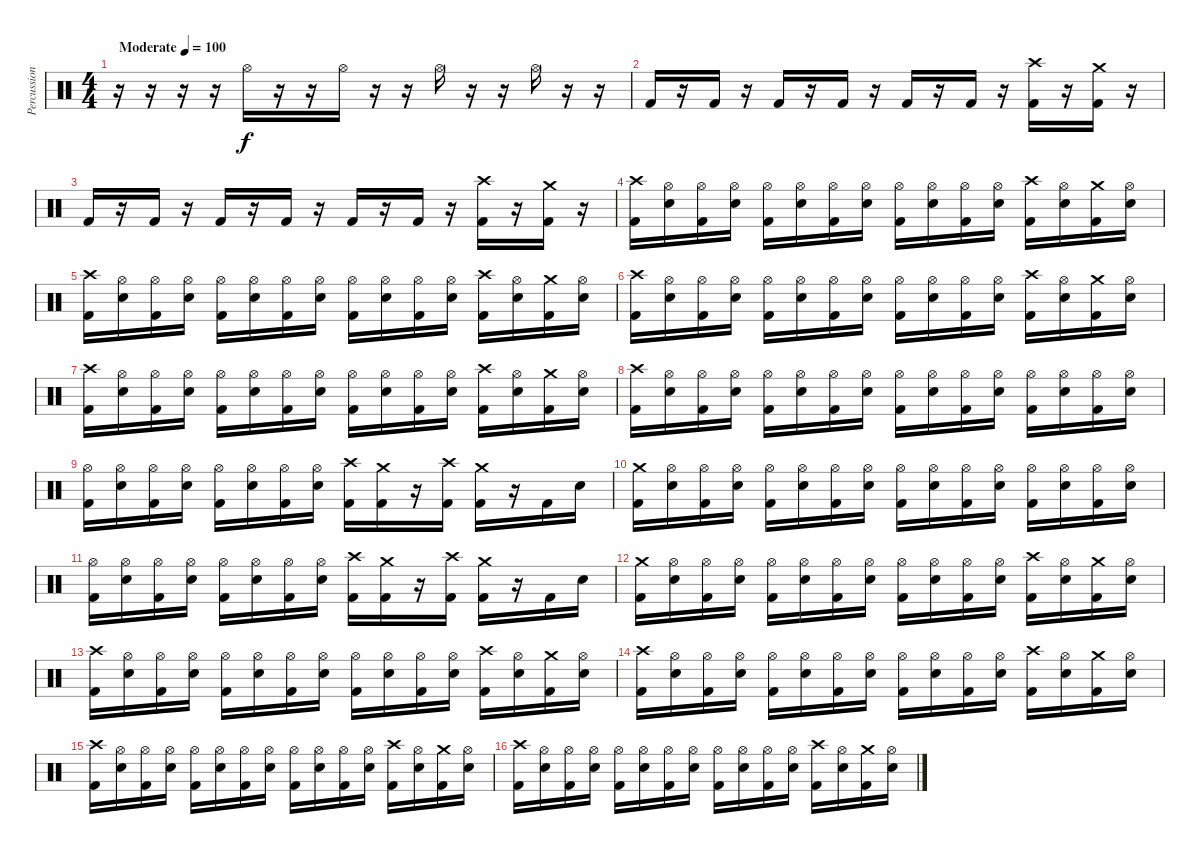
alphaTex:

\track ("Percussion" "Percussion") {instrument percussion}
\staff {score}
\articulation defaults
\ts (4 4)
\tempo (100 "Moderate")
\clef neutral
\ks c
r.16{dy f} r.16 r.16 r.16 "Hi-Hat (open)".16 r.16 r.16 "Hi-Hat (open)".16 r.16 r.16 "Hi-Hat (open)".16 r.16 r.16 "Hi-Hat (open)".16 r.16 r.16 |
"Kick (hit) 2".16 r.16 "Kick (hit) 2".16 r.16 "Kick (hit) 2".16 r.16 "Kick (hit) 2".16 r.16 "Kick (hit) 2".16 r.16 "Kick (hit) 2".16 r.16 ("Crash high (hit)" "Kick (hit) 2").16 r.16 ("Crash medium (hit)" "Kick (hit) 2").16 r.16 |
"Kick (hit) 2".16 r.16 "Kick (hit) 2".16 r.16 "Kick (hit) 2".16 r.16 "Kick (hit) 2".16 r.16 "Kick (hit) 2".16 r.16 "Kick (hit) 2".16 r.16 ("Crash high (hit)" "Kick (hit) 2").16 r.16 ("Crash medium (hit)" "Kick (hit) 2").16 r.16 |
("Crash high (hit)" "Kick (hit) 2").16 ("Hi-Hat (open)" "Snare (hit) 2").16 ("Hi-Hat (open)" "Kick (hit) 2").16 ("Hi-Hat (open)" "Snare (hit) 2").16 ("Hi-Hat (open)" "Kick (hit) 2").16 ("Hi-Hat (open)" "Snare (hit) 2").16 ("Hi-Hat (open)" "Kick (hit) 2").16 ("Hi-Hat (open)" "Snare (hit) 2").16 ("Hi-Hat (open)" "Kick (hit) 2").16 ("Hi-Hat (open)" "Snare (hit) 2").16 ("Hi-Hat (open)" "Kick (hit) 2").16 ("Hi-Hat (open)" "Snare (hit) 2").16 ("Crash high (hit)" "Kick (hit) 2").16 ("Hi-Hat (open)" "Snare (hit) 2").16 ("Crash medium (hit)" "Kick (hit) 2").16 ("Hi-Hat (open)" "Snare (hit) 2").16 |
("Crash high (hit)" "Kick (hit) 2").16 ("Hi-Hat (open)" "Snare (hit) 2").16 ("Hi-Hat (open)" "Kick (hit) 2").16 ("Hi-Hat (open)" "Snare (hit) 2").16 ("Hi-Hat (open)" "Kick (hit) 2").16 ("Hi-Hat (open)" "Snare (hit) 2").16 ("Hi-Hat (open)" "Kick (hit) 2").16 ("Hi-Hat (open)" "Snare (hit) 2").16 ("Hi-Hat (open)" "Kick (hit) 2").16 ("Hi-Hat (open)" "Snare (hit) 2").16 ("Hi-Hat (open)" "Kick (hit) 2").16 ("Hi-Hat (open)" "Snare (hit) 2").16 ("Crash high (hit)" "Kick (hit) 2").16 ("Hi-Hat (open)" "Snare (hit) 2").16 ("Crash medium (hit)" "Kick (hit) 2").16 ("Hi-Hat (open)" "Snare (hit) 2").16 |
("Crash high (hit)" "Kick (hit) 2").16 ("Hi-Hat (open)" "Snare (hit) 2").16 ("Hi-Hat (open)" "Kick (hit) 2").16 ("Hi-Hat (open)" "Snare (hit) 2").16 ("Hi-Hat (open)" "Kick (hit) 2").16 ("Hi-Hat (open)" "Snare (hit) 2").16 ("Hi-Hat (open)" "Kick (hit) 2").16 ("Hi-Hat (open)" "Snare (hit) 2").16 ("Hi-Hat (open)" "Kick (hit) 2").16 ("Hi-Hat (open)" "Snare (hit) 2").16 ("Hi-Hat (open)" "Kick (hit) 2").16 ("Hi-Hat (open)" "Snare (hit) 2").16 ("Crash high (hit)" "Kick (hit) 2").16 ("Hi-Hat (open)" "Snare (hit) 2").16 ("Crash medium (hit)" "Kick (hit) 2").16 ("Hi-Hat (open)" "Snare (hit) 2").16 |
("Crash high (hit)" "Kick (hit) 2").16 ("Hi-Hat (open)" "Snare (hit) 2").16 ("Hi-Hat (open)" "Kick (hit) 2").16 ("Hi-Hat (open)" "Snare (hit) 2").16 ("Hi-Hat (open)" "Kick (hit) 2").16 ("Hi-Hat (open)" "Snare (hit) 2").16 ("Hi-Hat (open)" "Kick (hit) 2").16 ("Hi-Hat (open)" "Snare (hit) 2").16 ("Hi-Hat (open)" "Kick (hit) 2").16 ("Hi-Hat (open)" "Snare (hit) 2").16 ("Hi-Hat (open)" "Kick (hit) 2").16 ("Hi-Hat (open)" "Snare (hit) 2").16 ("Crash high (hit)" "Kick (hit) 2").16 ("Hi-Hat (open)" "Snare (hit) 2").16 ("Crash medium (hit)" "Kick (hit) 2").16 ("Hi-Hat (open)" "Snare (hit) 2").16 |
("Crash high (hit)" "Kick (hit) 2").16 ("Hi-Hat (open)" "Snare (hit) 2").16 ("Hi-Hat (open)" "Kick (hit) 2").16 ("Hi-Hat (open)" "Snare (hit) 2").16 ("Hi-Hat (open)" "Kick (hit) 2").16 ("Hi-Hat (open)" "Snare (hit) 2").16 ("Hi-Hat (open)" "Kick (hit) 2").16 ("Hi-Hat (open)" "Snare (hit) 2").16 ("Hi-Hat (open)" "Kick (hit) 2").16 ("Hi-Hat (open)" "Snare (hit) 2").16 ("Hi-Hat (open)" "Kick (hit) 2").16 ("Hi-Hat (open)" "Snare (hit) 2").16 ("Hi-Hat (open)" "Kick (hit) 2").16 ("Hi-Hat (open)" "Snare (hit) 2").16 ("Hi-Hat (open)" "Kick (hit) 2").16 ("Hi-Hat (open)" "Snare (hit) 2").16 |
("Hi-Hat (open)" "Kick (hit) 2").16 ("Hi-Hat (open)" "Snare (hit) 2").16 ("Hi-Hat (open)" "Kick (hit) 2").16 ("Hi-Hat (open)" "Snare (hit) 2").16 ("Hi-Hat (open)" "Kick (hit) 2").16 ("Hi-Hat (open)" "Snare (hit) 2").16 ("Hi-Hat (open)" "Kick (hit) 2").16 ("Hi-Hat (open)" "Snare (hit) 2").16 ("Crash high (hit)" "Kick (hit) 2").16 ("Crash medium (hit)" "Kick (hit) 2").16 r.16 ("Crash high (hit)" "Kick (hit) 2").16 ("Crash medium (hit)" "Kick (hit) 2").16 r.16 "Kick (hit) 2".16 "Snare (hit) 2".16 |
("Crash medium (hit)" "Kick (hit) 2").16 ("Hi-Hat (open)" "Snare (hit) 2").16 ("Hi-Hat (open)" "Kick (hit) 2").16 ("Hi-Hat (open)" "Snare (hit) 2").16 ("Hi-Hat (open)" "Kick (hit) 2").16 ("Hi-Hat (open)" "Snare (hit) 2").16 ("Hi-Hat (open)" "Kick (hit) 2").16 ("Hi-Hat (open)" "Snare (hit) 2").16 ("Hi-Hat (open)" "Kick (hit) 2").16 ("Hi-Hat (open)" "Snare (hit) 2").16 ("Hi-Hat (open)" "Kick (hit) 2").16 ("Hi-Hat (open)" "Snare (hit) 2").16 ("Hi-Hat (open)" "Kick (hit) 2").16 ("Hi-Hat (open)" "Snare (hit) 2").16 ("Hi-Hat (open)" "Kick (hit) 2").16 ("Hi-Hat (open)" "Snare (hit) 2").16 |
("Hi-Hat (open)" "Kick (hit) 2").16 ("Hi-Hat (open)" "Snare (hit) 2").16 ("Hi-Hat (open)" "Kick (hit) 2").16 ("Hi-Hat (open)" "Snare (hit) 2").16 ("Hi-Hat (open)" "Kick (hit) 2").16 ("Hi-Hat (open)" "Snare (hit) 2").16 ("Hi-Hat (open)" "Kick (hit) 2").16 ("Hi-Hat (open)" "Snare (hit) 2").16 ("Crash high (hit)" "Kick (hit) 2").16 ("Crash medium (hit)" "Kick (hit) 2").16 r.16 ("Crash high (hit)" "Kick (hit) 2").16 ("Crash medium (hit)" "Kick (hit) 2").16 r.16 "Kick (hit) 2".16 "Snare (hit) 2".16 |
("Crash medium (hit)" "Kick (hit) 2").16 ("Hi-Hat (open)" "Snare (hit) 2").16 ("Hi-Hat (open)" "Kick (hit) 2").16 ("Hi-Hat (open)" "Snare (hit) 2").16 ("Hi-Hat (open)" "Kick (hit) 2").16 ("Hi-Hat (open)" "Snare (hit) 2").16 ("Hi-Hat (open)" "Kick (hit) 2").16 ("Hi-Hat (open)" "Snare (hit) 2").16 ("Hi-Hat (open)" "Kick (hit) 2").16 ("Hi-Hat (open)" "Snare (hit) 2").16 ("Hi-Hat (open)" "Kick (hit) 2").16 ("Hi-Hat (open)" "Snare (hit) 2").16 ("Crash high (hit)" "Kick (hit) 2").16 ("Hi-Hat (open)" "Snare (hit) 2").16 ("Crash medium (hit)" "Kick (hit) 2").16 ("Hi-Hat (open)" "Snare (hit) 2").16 |
("Crash high (hit)" "Kick (hit) 2").16 ("Hi-Hat (open)" "Snare (hit) 2").16 ("Hi-Hat (open)" "Kick (hit) 2").16 ("Hi-Hat (open)" "Snare (hit) 2").16 ("Hi-Hat (open)" "Kick (hit) 2").16 ("Hi-Hat (open)" "Snare (hit) 2").16 ("Hi-Hat (open)" "Kick (hit) 2").16 ("Hi-Hat (open)" "Snare (hit) 2").16 ("Hi-Hat (open)" "Kick (hit) 2").16 ("Hi-Hat (open)" "Snare (hit) 2").16 ("Hi-Hat (open)" "Kick (hit) 2").16 ("Hi-Hat (open)" "Snare (hit) 2").16 ("Crash high (hit)" "Kick (hit) 2").16 ("Hi-Hat (open)" "Snare (hit) 2").16 ("Crash medium (hit)" "Kick (hit) 2").16 ("Hi-Hat (open)" "Snare (hit) 2").16 |
("Crash high (hit)" "Kick (hit) 2").16 ("Hi-Hat (open)" "Snare (hit) 2").16 ("Hi-Hat (open)" "Kick (hit) 2").16 ("Hi-Hat (open)" "Snare (hit) 2").16 ("Hi-Hat (open)" "Kick (hit) 2").16 ("Hi-Hat (open)" "Snare (hit) 2").16 ("Hi-Hat (open)" "Kick (hit) 2").16 ("Hi-Hat (open)" "Snare (hit) 2").16 ("Hi-Hat (open)" "Kick (hit) 2").16 ("Hi-Hat (open)" "Snare (hit) 2").16 ("Hi-Hat (open)" "Kick (hit) 2").16 ("Hi-Hat (open)" "Snare (hit) 2").16 ("Crash high (hit)" "Kick (hit) 2").16 ("Hi-Hat (open)" "Snare (hit) 2").16 ("Crash medium (hit)" "Kick (hit) 2").16 ("Hi-Hat (open)" "Snare (hit) 2").16 |
("Crash high (hit)" "Kick (hit) 2").16 ("Hi-Hat (open)" "Snare (hit) 2").16 ("Hi-Hat (open)" "Kick (hit) 2").16 ("Hi-Hat (open)" "Snare (hit) 2").16 ("Hi-Hat (open)" "Kick (hit) 2").16 ("Hi-Hat (open)" "Snare (hit) 2").16 ("Hi-Hat (open)" "Kick (hit) 2").16 ("Hi-Hat (open)" "Snare (hit) 2").16 ("Hi-Hat (open)" "Kick (hit) 2").16 ("Hi-Hat (open)" "Snare (hit) 2").16 ("Hi-Hat (open)" "Kick (hit) 2").16 ("Hi-Hat (open)" "Snare (hit) 2").16 ("Crash high (hit)" "Kick (hit) 2").16 ("Hi-Hat (open)" "Snare (hit) 2").16 ("Crash medium (hit)" "Kick (hit) 2").16 ("Hi-Hat (open)" "Snare (hit) 2").16 |
("Crash high (hit)" "Kick (hit) 2").16 ("Hi-Hat (open)" "Snare (hit) 2").16 ("Hi-Hat (open)" "Kick (hit) 2").16 ("Hi-Hat (open)" "Snare (hit) 2").16 ("Hi-Hat (open)" "Kick (hit) 2").16 ("Hi-Hat (open)" "Snare (hit) 2").16 ("Hi-Hat (open)" "Kick (hit) 2").16 ("Hi-Hat (open)" "Snare (hit) 2").16 ("Hi-Hat (open)" "Kick (hit) 2").16 ("Hi-Hat (open)" "Snare (hit) 2").16 ("Hi-Hat (open)" "Kick (hit) 2").16 ("Hi-Hat (open)" "Snare (hit) 2").16 ("Crash high (hit)" "Kick (hit) 2").16 ("Hi-Hat (open)" "Snare (hit) 2").16 ("Crash medium (hit)" "Kick (hit) 2").16 ("Hi-Hat (open)" "Snare (hit) 2").16
